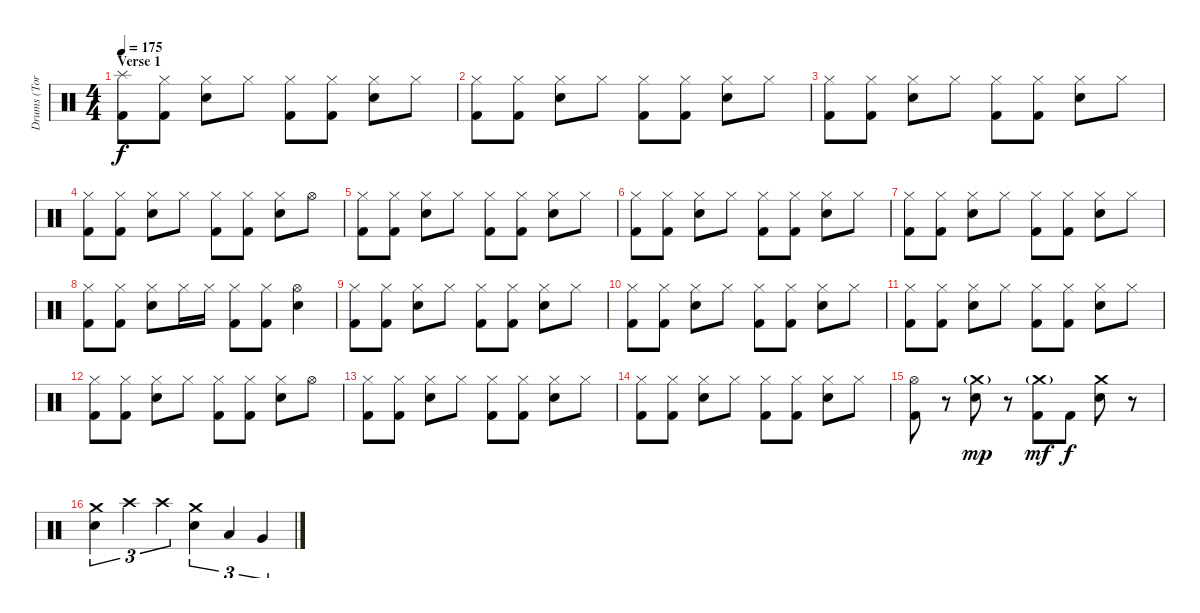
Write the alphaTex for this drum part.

\track ("Drums (Tora)" "Drums (Tor") {instrument percussion}
\staff {score}
\articulation defaults
\ts (4 4)
\section ("" "Verse 1")
\tempo 175
\clef neutral
\ks c
("Splash (hit)" "Kick (hit) 2").8{dy f} ("Hi-Hat (closed)" "Kick (hit) 2").8 ("Hi-Hat (closed)" "Electric Snare (hit)").8 "Hi-Hat (closed)".8 ("Hi-Hat (closed)" "Kick (hit) 2").8 ("Hi-Hat (closed)" "Kick (hit) 2").8 ("Hi-Hat (closed)" "Electric Snare (hit)").8 "Hi-Hat (closed)".8 |
("Hi-Hat (closed)" "Kick (hit) 2").8 ("Hi-Hat (closed)" "Kick (hit) 2").8 ("Hi-Hat (closed)" "Electric Snare (hit)").8 "Hi-Hat (closed)".8 ("Hi-Hat (closed)" "Kick (hit) 2").8 ("Hi-Hat (closed)" "Kick (hit) 2").8 ("Hi-Hat (closed)" "Electric Snare (hit)").8 "Hi-Hat (closed)".8 |
("Hi-Hat (closed)" "Kick (hit) 2").8 ("Hi-Hat (closed)" "Kick (hit) 2").8 ("Hi-Hat (closed)" "Electric Snare (hit)").8 "Hi-Hat (closed)".8 ("Hi-Hat (closed)" "Kick (hit) 2").8 ("Hi-Hat (closed)" "Kick (hit) 2").8 ("Hi-Hat (closed)" "Electric Snare (hit)").8 "Hi-Hat (closed)".8 |
("Hi-Hat (closed)" "Kick (hit) 2").8 ("Hi-Hat (closed)" "Kick (hit) 2").8 ("Hi-Hat (closed)" "Electric Snare (hit)").8 "Hi-Hat (closed)".8 ("Hi-Hat (closed)" "Kick (hit) 2").8 ("Hi-Hat (closed)" "Kick (hit) 2").8 ("Hi-Hat (closed)" "Electric Snare (hit)").8 "Hi-Hat (open)".8 |
("Hi-Hat (closed)" "Kick (hit) 2").8 ("Hi-Hat (closed)" "Kick (hit) 2").8 ("Hi-Hat (closed)" "Electric Snare (hit)").8 "Hi-Hat (closed)".8 ("Hi-Hat (closed)" "Kick (hit) 2").8 ("Hi-Hat (closed)" "Kick (hit) 2").8 ("Hi-Hat (closed)" "Electric Snare (hit)").8 "Hi-Hat (closed)".8 |
("Hi-Hat (closed)" "Kick (hit) 2").8 ("Hi-Hat (closed)" "Kick (hit) 2").8 ("Hi-Hat (closed)" "Electric Snare (hit)").8 "Hi-Hat (closed)".8 ("Hi-Hat (closed)" "Kick (hit) 2").8 ("Hi-Hat (closed)" "Kick (hit) 2").8 ("Hi-Hat (closed)" "Electric Snare (hit)").8 "Hi-Hat (closed)".8 |
("Hi-Hat (closed)" "Kick (hit) 2").8 ("Hi-Hat (closed)" "Kick (hit) 2").8 ("Hi-Hat (closed)" "Electric Snare (hit)").8 "Hi-Hat (closed)".8 ("Hi-Hat (closed)" "Kick (hit) 2").8 ("Hi-Hat (closed)" "Kick (hit) 2").8 ("Hi-Hat (closed)" "Electric Snare (hit)").8 "Hi-Hat (closed)".8 |
("Hi-Hat (closed)" "Kick (hit) 2").8 ("Hi-Hat (closed)" "Kick (hit) 2").8 ("Hi-Hat (closed)" "Electric Snare (hit)").8 "Hi-Hat (closed)".16 "Hi-Hat (closed)".16 ("Hi-Hat (closed)" "Kick (hit) 2").8 ("Hi-Hat (closed)" "Kick (hit) 2").8 ("Hi-Hat (open)" "Electric Snare (hit)").4 |
("Hi-Hat (closed)" "Kick (hit) 2").8 ("Hi-Hat (closed)" "Kick (hit) 2").8 ("Hi-Hat (closed)" "Electric Snare (hit)").8 "Hi-Hat (closed)".8 ("Hi-Hat (closed)" "Kick (hit) 2").8 ("Hi-Hat (closed)" "Kick (hit) 2").8 ("Hi-Hat (closed)" "Electric Snare (hit)").8 "Hi-Hat (closed)".8 |
("Hi-Hat (closed)" "Kick (hit) 2").8 ("Hi-Hat (closed)" "Kick (hit) 2").8 ("Hi-Hat (closed)" "Electric Snare (hit)").8 "Hi-Hat (closed)".8 ("Hi-Hat (closed)" "Kick (hit) 2").8 ("Hi-Hat (closed)" "Kick (hit) 2").8 ("Hi-Hat (closed)" "Electric Snare (hit)").8 "Hi-Hat (closed)".8 |
("Hi-Hat (closed)" "Kick (hit) 2").8 ("Hi-Hat (closed)" "Kick (hit) 2").8 ("Hi-Hat (closed)" "Electric Snare (hit)").8 "Hi-Hat (closed)".8 ("Hi-Hat (closed)" "Kick (hit) 2").8 ("Hi-Hat (closed)" "Kick (hit) 2").8 ("Hi-Hat (closed)" "Electric Snare (hit)").8 "Hi-Hat (closed)".8 |
("Hi-Hat (closed)" "Kick (hit) 2").8 ("Hi-Hat (closed)" "Kick (hit) 2").8 ("Hi-Hat (closed)" "Electric Snare (hit)").8 "Hi-Hat (closed)".8 ("Hi-Hat (closed)" "Kick (hit) 2").8 ("Hi-Hat (closed)" "Kick (hit) 2").8 ("Hi-Hat (closed)" "Electric Snare (hit)").8 "Hi-Hat (open)".8 |
("Hi-Hat (closed)" "Kick (hit) 2").8 ("Hi-Hat (closed)" "Kick (hit) 2").8 ("Hi-Hat (closed)" "Electric Snare (hit)").8 "Hi-Hat (closed)".8 ("Hi-Hat (closed)" "Kick (hit) 2").8 ("Hi-Hat (closed)" "Kick (hit) 2").8 ("Hi-Hat (closed)" "Electric Snare (hit)").8 "Hi-Hat (closed)".8 |
("Hi-Hat (closed)" "Kick (hit) 2").8 ("Hi-Hat (closed)" "Kick (hit) 2").8 ("Hi-Hat (closed)" "Electric Snare (hit)").8 "Hi-Hat (closed)".8 ("Hi-Hat (closed)" "Kick (hit) 2").8 ("Hi-Hat (closed)" "Kick (hit) 2").8 ("Hi-Hat (closed)" "Electric Snare (hit)").8 "Hi-Hat (closed)".8 |
("Hi-Hat (open)" "Kick (hit) 2").8 r.8 ("Crash medium (hit)"{g} "Electric Snare (hit)").8{dy mp} r.8 ("Crash medium (hit)"{g} "Kick (hit) 2").8{dy mf} "Kick (hit) 2".8{dy f} ("Crash medium (hit)" "Electric Snare (hit)").8 r.8 |
("Crash medium (hit)" "Electric Snare (hit)").4{tu (3 2)} "Crash high (hit)".4{tu (3 2)} "Crash high (hit)".4{tu (3 2)} ("Crash medium (hit)" "Electric Snare (hit)").4{tu (3 2)} "Low Tom (hit)".4{tu (3 2)} "Very Low Tom (hit)".4{tu (3 2)}
